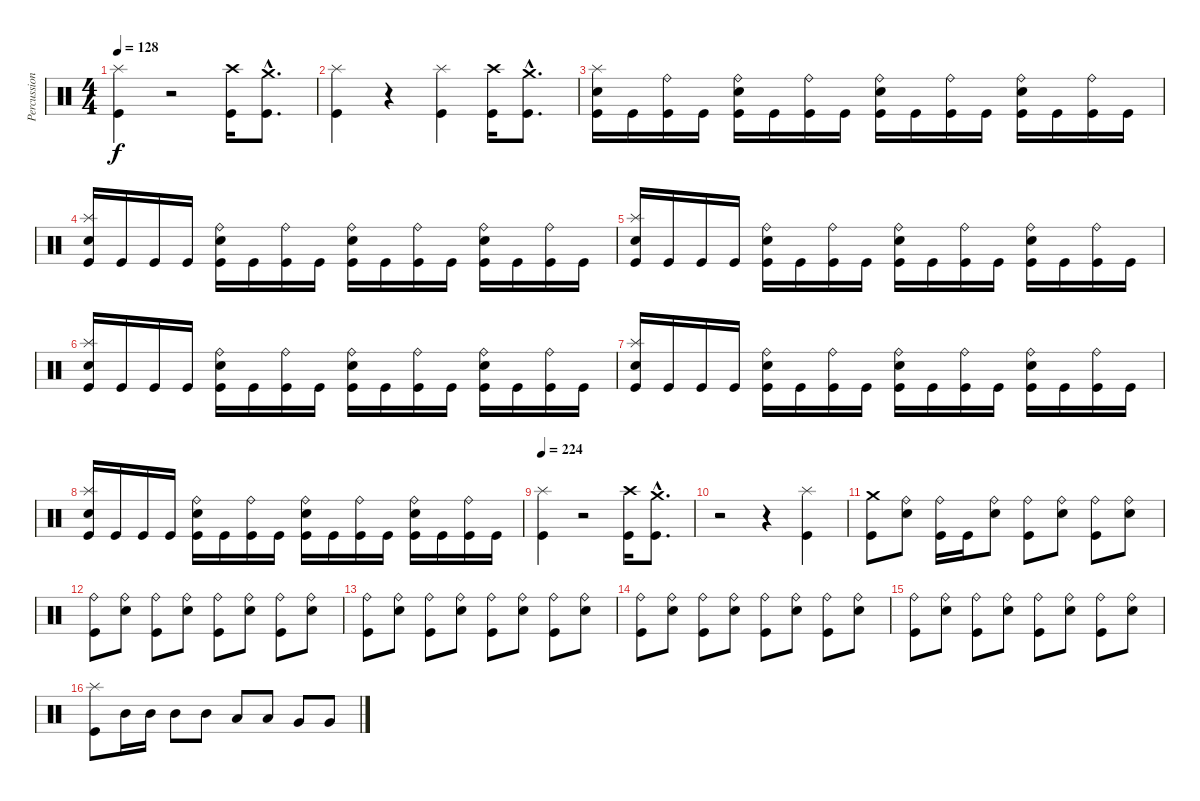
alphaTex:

\track ("Percussions" "Percussion") {instrument percussion}
\staff {score}
\articulation defaults
\ts (4 4)
\tempo 128
\clef neutral
\ks c
("Kick (hit)" "Splash (hit)").4{dy f} r.2 ("Kick (hit)" "Crash high (hit)").16 ("Kick (hit)"{hac} "Crash medium (hit)"{hac}).8{d} |
("Kick (hit)" "Splash (hit)").4 r.4 ("Kick (hit)" "Splash (hit)").4 ("Kick (hit)" "Crash high (hit)").16 ("Kick (hit)"{hac} "Crash medium (hit)"{hac}).8{d} |
("Kick (hit)" "Electric Snare (hit)" "Splash (hit)").16 "Kick (hit)".16 ("Kick (hit)" "Ride (bell)").16 "Kick (hit)".16 ("Kick (hit)" "Electric Snare (hit)" "Ride (bell)").16 "Kick (hit)".16 ("Kick (hit)" "Ride (bell)").16 "Kick (hit)".16 ("Kick (hit)" "Electric Snare (hit)" "Ride (bell)").16 "Kick (hit)".16 ("Kick (hit)" "Ride (bell)").16 "Kick (hit)".16 ("Kick (hit)" "Electric Snare (hit)" "Ride (bell)").16 "Kick (hit)".16 ("Kick (hit)" "Ride (bell)").16 "Kick (hit)".16 |
("Kick (hit)" "Electric Snare (hit)" "Splash (hit)").16 "Kick (hit)".16 "Kick (hit)".16 "Kick (hit)".16 ("Kick (hit)" "Electric Snare (hit)" "Ride (bell)").16 "Kick (hit)".16 ("Kick (hit)" "Ride (bell)").16 "Kick (hit)".16 ("Kick (hit)" "Electric Snare (hit)" "Ride (bell)").16 "Kick (hit)".16 ("Kick (hit)" "Ride (bell)").16 "Kick (hit)".16 ("Kick (hit)" "Electric Snare (hit)" "Ride (bell)").16 "Kick (hit)".16 ("Kick (hit)" "Ride (bell)").16 "Kick (hit)".16 |
("Kick (hit)" "Electric Snare (hit)" "Splash (hit)").16 "Kick (hit)".16 "Kick (hit)".16 "Kick (hit)".16 ("Kick (hit)" "Electric Snare (hit)" "Ride (bell)").16 "Kick (hit)".16 ("Kick (hit)" "Ride (bell)").16 "Kick (hit)".16 ("Kick (hit)" "Electric Snare (hit)" "Ride (bell)").16 "Kick (hit)".16 ("Kick (hit)" "Ride (bell)").16 "Kick (hit)".16 ("Kick (hit)" "Electric Snare (hit)" "Ride (bell)").16 "Kick (hit)".16 ("Kick (hit)" "Ride (bell)").16 "Kick (hit)".16 |
("Kick (hit)" "Electric Snare (hit)" "Splash (hit)").16 "Kick (hit)".16 "Kick (hit)".16 "Kick (hit)".16 ("Kick (hit)" "Electric Snare (hit)" "Ride (bell)").16 "Kick (hit)".16 ("Kick (hit)" "Ride (bell)").16 "Kick (hit)".16 ("Kick (hit)" "Electric Snare (hit)" "Ride (bell)").16 "Kick (hit)".16 ("Kick (hit)" "Ride (bell)").16 "Kick (hit)".16 ("Kick (hit)" "Electric Snare (hit)" "Ride (bell)").16 "Kick (hit)".16 ("Kick (hit)" "Ride (bell)").16 "Kick (hit)".16 |
("Kick (hit)" "Electric Snare (hit)" "Splash (hit)").16 "Kick (hit)".16 "Kick (hit)".16 "Kick (hit)".16 ("Kick (hit)" "Electric Snare (hit)" "Ride (bell)").16 "Kick (hit)".16 ("Kick (hit)" "Ride (bell)").16 "Kick (hit)".16 ("Kick (hit)" "Electric Snare (hit)" "Ride (bell)").16 "Kick (hit)".16 ("Kick (hit)" "Ride (bell)").16 "Kick (hit)".16 ("Kick (hit)" "Electric Snare (hit)" "Ride (bell)").16 "Kick (hit)".16 ("Kick (hit)" "Ride (bell)").16 "Kick (hit)".16 |
("Kick (hit)" "Electric Snare (hit)" "Splash (hit)").16 "Kick (hit)".16 "Kick (hit)".16 "Kick (hit)".16 ("Kick (hit)" "Electric Snare (hit)" "Ride (bell)").16 "Kick (hit)".16 ("Kick (hit)" "Ride (bell)").16 "Kick (hit)".16 ("Kick (hit)" "Electric Snare (hit)" "Ride (bell)").16 "Kick (hit)".16 ("Kick (hit)" "Ride (bell)").16 "Kick (hit)".16 ("Kick (hit)" "Electric Snare (hit)" "Ride (bell)").16 "Kick (hit)".16 ("Kick (hit)" "Ride (bell)").16 "Kick (hit)".16 |
\tempo 224
("Kick (hit)" "Splash (hit)").4 r.2 ("Kick (hit)" "Crash high (hit)").16 ("Kick (hit)"{hac} "Crash medium (hit)"{hac}).8{d} |
r.2 r.4 ("Kick (hit)" "Splash (hit)").4 |
("Kick (hit)" "Crash medium (hit)").8 ("Electric Snare (hit)" "Ride (bell)").8 ("Kick (hit)" "Ride (bell)").16 "Kick (hit)".16 ("Electric Snare (hit)" "Ride (bell)").8 ("Kick (hit)" "Ride (bell)").8 ("Electric Snare (hit)" "Ride (bell)").8 ("Kick (hit)" "Ride (bell)").8 ("Electric Snare (hit)" "Ride (bell)").8 |
("Kick (hit)" "Ride (bell)").8 ("Electric Snare (hit)" "Ride (bell)").8 ("Kick (hit)" "Ride (bell)").8 ("Electric Snare (hit)" "Ride (bell)").8 ("Kick (hit)" "Ride (bell)").8 ("Electric Snare (hit)" "Ride (bell)").8 ("Kick (hit)" "Ride (bell)").8 ("Electric Snare (hit)" "Ride (bell)").8 |
("Kick (hit)" "Ride (bell)").8 ("Electric Snare (hit)" "Ride (bell)").8 ("Kick (hit)" "Ride (bell)").8 ("Electric Snare (hit)" "Ride (bell)").8 ("Kick (hit)" "Ride (bell)").8 ("Electric Snare (hit)" "Ride (bell)").8 ("Kick (hit)" "Ride (bell)").8 ("Electric Snare (hit)" "Ride (bell)").8 |
("Kick (hit)" "Ride (bell)").8 ("Electric Snare (hit)" "Ride (bell)").8 ("Kick (hit)" "Ride (bell)").8 ("Electric Snare (hit)" "Ride (bell)").8 ("Kick (hit)" "Ride (bell)").8 ("Electric Snare (hit)" "Ride (bell)").8 ("Kick (hit)" "Ride (bell)").8 ("Electric Snare (hit)" "Ride (bell)").8 |
("Kick (hit)" "Ride (bell)").8 ("Electric Snare (hit)" "Ride (bell)").8 ("Kick (hit)" "Ride (bell)").8 ("Electric Snare (hit)" "Ride (bell)").8 ("Kick (hit)" "Ride (bell)").8 ("Electric Snare (hit)" "Ride (bell)").8 ("Kick (hit)" "Ride (bell)").8 ("Electric Snare (hit)" "Ride (bell)").8 |
("Kick (hit)" "Splash (hit)").8 "Mid Tom (hit)".16 "Mid Tom (hit)".16 "Mid Tom (hit)".8 "Mid Tom (hit)".8 "Low Tom (hit)".8 "Low Tom (hit)".8 "Very Low Tom (hit)".8 "Very Low Tom (hit)".8
